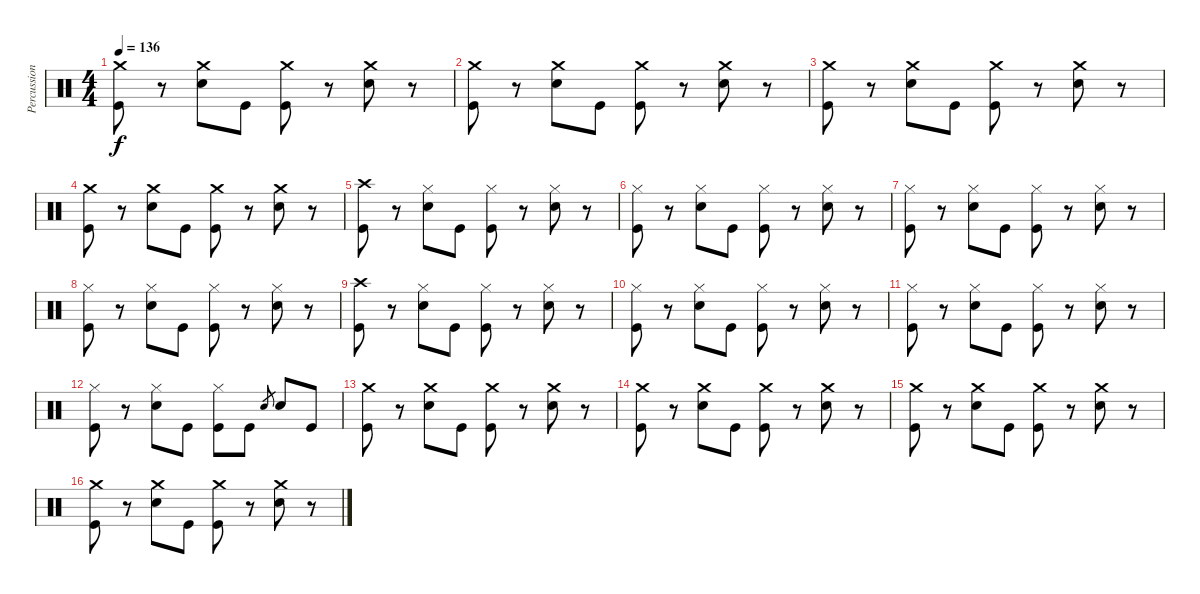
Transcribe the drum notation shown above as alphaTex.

\track ("Percussion" "Percussion") {instrument percussion}
\staff {score}
\articulation defaults
\ts (4 4)
\tempo 136
\clef neutral
\ks c
("Crash medium (hit)" "Kick (hit)").8{dy f} r.8 ("Crash medium (hit)" "Electric Snare (hit)").8 "Kick (hit)".8 ("Crash medium (hit)" "Kick (hit)").8 r.8 ("Crash medium (hit)" "Electric Snare (hit)").8 r.8 |
("Crash medium (hit)" "Kick (hit)").8 r.8 ("Crash medium (hit)" "Electric Snare (hit)").8 "Kick (hit)".8 ("Crash medium (hit)" "Kick (hit)").8 r.8 ("Crash medium (hit)" "Electric Snare (hit)").8 r.8 |
("Crash medium (hit)" "Kick (hit)").8 r.8 ("Crash medium (hit)" "Electric Snare (hit)").8 "Kick (hit)".8 ("Crash medium (hit)" "Kick (hit)").8 r.8 ("Crash medium (hit)" "Electric Snare (hit)").8 r.8 |
("Crash medium (hit)" "Kick (hit)").8 r.8 ("Crash medium (hit)" "Electric Snare (hit)").8 "Kick (hit)".8 ("Crash medium (hit)" "Kick (hit)").8 r.8 ("Crash medium (hit)" "Electric Snare (hit)").8 r.8 |
("Crash high (hit)" "Kick (hit)").8 r.8 ("Hi-Hat (closed)" "Electric Snare (hit)").8 "Kick (hit)".8 ("Hi-Hat (closed)" "Kick (hit)").8 r.8 ("Hi-Hat (closed)" "Electric Snare (hit)").8 r.8 |
("Hi-Hat (closed)" "Kick (hit)").8 r.8 ("Hi-Hat (closed)" "Electric Snare (hit)").8 "Kick (hit)".8 ("Hi-Hat (closed)" "Kick (hit)").8 r.8 ("Hi-Hat (closed)" "Electric Snare (hit)").8 r.8 |
("Hi-Hat (closed)" "Kick (hit)").8 r.8 ("Hi-Hat (closed)" "Electric Snare (hit)").8 "Kick (hit)".8 ("Hi-Hat (closed)" "Kick (hit)").8 r.8 ("Hi-Hat (closed)" "Electric Snare (hit)").8 r.8 |
("Hi-Hat (closed)" "Kick (hit)").8 r.8 ("Hi-Hat (closed)" "Electric Snare (hit)").8 "Kick (hit)".8 ("Hi-Hat (closed)" "Kick (hit)").8 r.8 ("Hi-Hat (closed)" "Electric Snare (hit)").8 r.8 |
("Crash high (hit)" "Kick (hit)").8 r.8 ("Hi-Hat (closed)" "Electric Snare (hit)").8 "Kick (hit)".8 ("Hi-Hat (closed)" "Kick (hit)").8 r.8 ("Hi-Hat (closed)" "Electric Snare (hit)").8 r.8 |
("Hi-Hat (closed)" "Kick (hit)").8 r.8 ("Hi-Hat (closed)" "Electric Snare (hit)").8 "Kick (hit)".8 ("Hi-Hat (closed)" "Kick (hit)").8 r.8 ("Hi-Hat (closed)" "Electric Snare (hit)").8 r.8 |
("Hi-Hat (closed)" "Kick (hit)").8 r.8 ("Hi-Hat (closed)" "Electric Snare (hit)").8 "Kick (hit)".8 ("Hi-Hat (closed)" "Kick (hit)").8 r.8 ("Hi-Hat (closed)" "Electric Snare (hit)").8 r.8 |
("Hi-Hat (closed)" "Kick (hit)").8 r.8 ("Hi-Hat (closed)" "Electric Snare (hit)").8 "Kick (hit)".8 ("Hi-Hat (closed)" "Kick (hit)").8 "Kick (hit)".8 "Electric Snare (hit)".8{gr} "Electric Snare (hit)".8 "Kick (hit)".8 |
("Crash medium (hit)" "Kick (hit)").8 r.8 ("Crash medium (hit)" "Electric Snare (hit)").8 "Kick (hit)".8 ("Crash medium (hit)" "Kick (hit)").8 r.8 ("Crash medium (hit)" "Electric Snare (hit)").8 r.8 |
("Crash medium (hit)" "Kick (hit)").8 r.8 ("Crash medium (hit)" "Electric Snare (hit)").8 "Kick (hit)".8 ("Crash medium (hit)" "Kick (hit)").8 r.8 ("Crash medium (hit)" "Electric Snare (hit)").8 r.8 |
("Crash medium (hit)" "Kick (hit)").8 r.8 ("Crash medium (hit)" "Electric Snare (hit)").8 "Kick (hit)".8 ("Crash medium (hit)" "Kick (hit)").8 r.8 ("Crash medium (hit)" "Electric Snare (hit)").8 r.8 |
("Crash medium (hit)" "Kick (hit)").8 r.8 ("Crash medium (hit)" "Electric Snare (hit)").8 "Kick (hit)".8 ("Crash medium (hit)" "Kick (hit)").8 r.8 ("Crash medium (hit)" "Electric Snare (hit)").8 r.8
